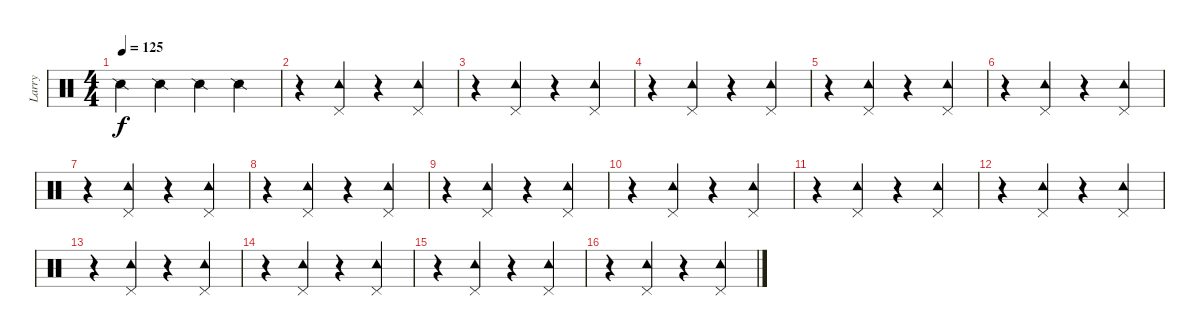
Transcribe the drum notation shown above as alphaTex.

\track ("Larry" "Larry") {instrument percussion}
\staff {score}
\articulation defaults
\ts (4 4)
\tempo 125
\clef neutral
\ks c "Snare (side stick) 2".4{dy f} "Snare (side stick) 2".4 "Snare (side stick) 2".4 "Snare (side stick) 2".4
|
r.4 ("Pedal Hi-Hat (hit)" "Tambourine (hit)").4 r.4 ("Pedal Hi-Hat (hit)" "Tambourine (hit)").4 |
r.4 ("Pedal Hi-Hat (hit)" "Tambourine (hit)").4 r.4 ("Pedal Hi-Hat (hit)" "Tambourine (hit)").4 |
r.4 ("Pedal Hi-Hat (hit)" "Tambourine (hit)").4 r.4 ("Pedal Hi-Hat (hit)" "Tambourine (hit)").4 |
r.4 ("Pedal Hi-Hat (hit)" "Tambourine (hit)").4 r.4 ("Pedal Hi-Hat (hit)" "Tambourine (hit)").4 |
r.4 ("Pedal Hi-Hat (hit)" "Tambourine (hit)").4 r.4 ("Pedal Hi-Hat (hit)" "Tambourine (hit)").4 |
r.4 ("Pedal Hi-Hat (hit)" "Tambourine (hit)").4 r.4 ("Pedal Hi-Hat (hit)" "Tambourine (hit)").4 |
r.4 ("Pedal Hi-Hat (hit)" "Tambourine (hit)").4 r.4 ("Pedal Hi-Hat (hit)" "Tambourine (hit)").4 |
r.4 ("Pedal Hi-Hat (hit)" "Tambourine (hit)").4 r.4 ("Pedal Hi-Hat (hit)" "Tambourine (hit)").4 |
r.4 ("Pedal Hi-Hat (hit)" "Tambourine (hit)").4 r.4 ("Pedal Hi-Hat (hit)" "Tambourine (hit)").4 |
r.4 ("Pedal Hi-Hat (hit)" "Tambourine (hit)").4 r.4 ("Pedal Hi-Hat (hit)" "Tambourine (hit)").4 |
r.4 ("Pedal Hi-Hat (hit)" "Tambourine (hit)").4 r.4 ("Pedal Hi-Hat (hit)" "Tambourine (hit)").4 |
r.4 ("Pedal Hi-Hat (hit)" "Tambourine (hit)").4 r.4 ("Pedal Hi-Hat (hit)" "Tambourine (hit)").4 |
r.4 ("Pedal Hi-Hat (hit)" "Tambourine (hit)").4 r.4 ("Pedal Hi-Hat (hit)" "Tambourine (hit)").4 |
r.4 ("Pedal Hi-Hat (hit)" "Tambourine (hit)").4 r.4 ("Pedal Hi-Hat (hit)" "Tambourine (hit)").4 |
r.4 ("Pedal Hi-Hat (hit)" "Tambourine (hit)").4 r.4 ("Pedal Hi-Hat (hit)" "Tambourine (hit)").4
